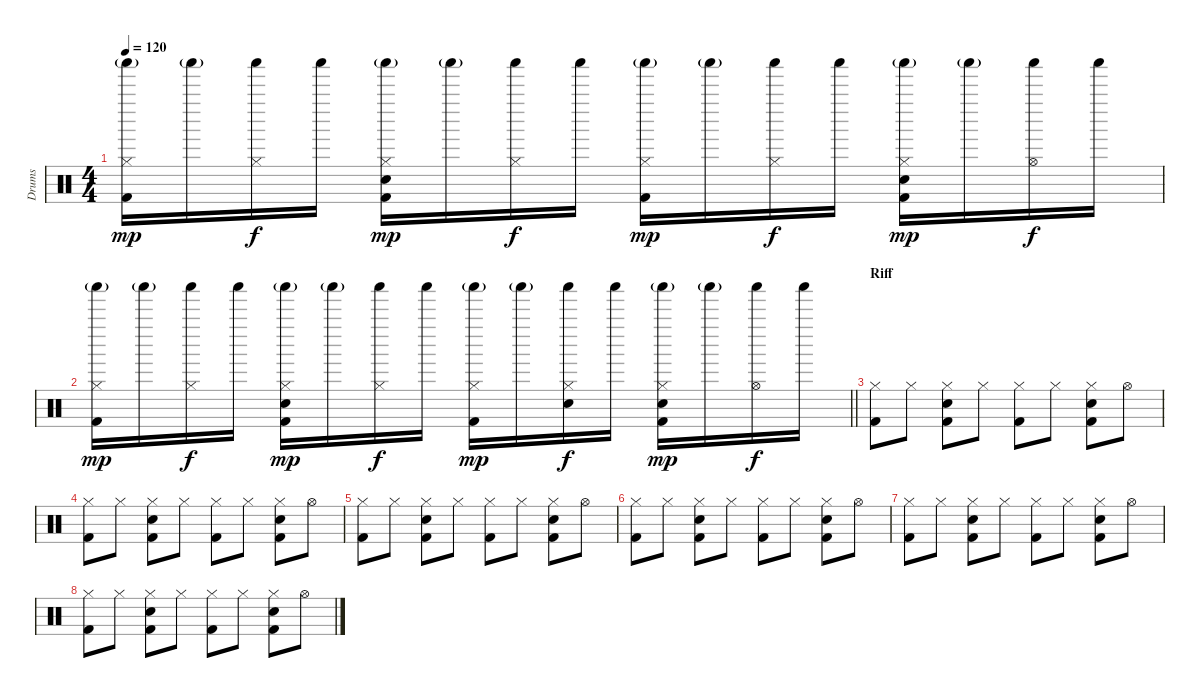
\track ("Drums" "Drums") {instrument percussion}
\staff {score}
\articulation defaults
\ts (4 4)
\tempo 120
\clef neutral
\ks c
("Hi-Hat (closed)" "Shaker (hit)"{g} "Kick (hit) 2").16{dy mp} "Shaker (hit)"{g}.16 ("Hi-Hat (closed)" "Shaker (hit)").16{dy f} "Shaker (hit)".16 ("Hi-Hat (closed)" "Shaker (hit)"{g} "Electric Snare (hit)" "Kick (hit) 2").16{dy mp} "Shaker (hit)"{g}.16 ("Hi-Hat (closed)" "Shaker (hit)").16{dy f} "Shaker (hit)".16 ("Hi-Hat (closed)" "Shaker (hit)"{g} "Kick (hit) 2").16{dy mp} "Shaker (hit)"{g}.16 ("Hi-Hat (closed)" "Shaker (hit)").16{dy f} "Shaker (hit)".16 ("Hi-Hat (closed)" "Shaker (hit)"{g} "Electric Snare (hit)" "Kick (hit) 2").16{dy mp} "Shaker (hit)"{g}.16 ("Hi-Hat (open)" "Shaker (hit)").16{dy f} "Shaker (hit)".16 |
\barLineRight lightlight
("Hi-Hat (closed)" "Shaker (hit)"{g} "Kick (hit) 2").16{dy mp} "Shaker (hit)"{g}.16 ("Hi-Hat (closed)" "Shaker (hit)").16{dy f} "Shaker (hit)".16 ("Hi-Hat (closed)" "Shaker (hit)"{g} "Electric Snare (hit)" "Kick (hit) 2").16{dy mp} "Shaker (hit)"{g}.16 ("Hi-Hat (closed)" "Shaker (hit)").16{dy f} "Shaker (hit)".16 ("Hi-Hat (closed)" "Shaker (hit)"{g} "Kick (hit) 2").16{dy mp} "Shaker (hit)"{g}.16 ("Hi-Hat (closed)" "Shaker (hit)" "Electric Snare (hit)").16{dy f} "Shaker (hit)".16 ("Hi-Hat (closed)" "Shaker (hit)"{g} "Electric Snare (hit)" "Kick (hit) 2").16{dy mp} "Shaker (hit)"{g}.16 ("Hi-Hat (open)" "Shaker (hit)").16{dy f} "Shaker (hit)".16 |
\section ("" "Riff")
("Hi-Hat (closed)" "Kick (hit) 2").8 "Hi-Hat (closed)".8 ("Hi-Hat (closed)" "Electric Snare (hit)" "Kick (hit) 2").8 "Hi-Hat (closed)".8 ("Hi-Hat (closed)" "Kick (hit) 2").8 "Hi-Hat (closed)".8 ("Hi-Hat (closed)" "Electric Snare (hit)" "Kick (hit) 2").8 "Hi-Hat (open)".8 |
("Hi-Hat (closed)" "Kick (hit) 2").8 "Hi-Hat (closed)".8 ("Hi-Hat (closed)" "Electric Snare (hit)" "Kick (hit) 2").8 "Hi-Hat (closed)".8 ("Hi-Hat (closed)" "Kick (hit) 2").8 "Hi-Hat (closed)".8 ("Hi-Hat (closed)" "Electric Snare (hit)" "Kick (hit) 2").8 "Hi-Hat (open)".8 |
("Hi-Hat (closed)" "Kick (hit) 2").8 "Hi-Hat (closed)".8 ("Hi-Hat (closed)" "Electric Snare (hit)" "Kick (hit) 2").8 "Hi-Hat (closed)".8 ("Hi-Hat (closed)" "Kick (hit) 2").8 "Hi-Hat (closed)".8 ("Hi-Hat (closed)" "Electric Snare (hit)" "Kick (hit) 2").8 "Hi-Hat (open)".8 |
("Hi-Hat (closed)" "Kick (hit) 2").8 "Hi-Hat (closed)".8 ("Hi-Hat (closed)" "Electric Snare (hit)" "Kick (hit) 2").8 "Hi-Hat (closed)".8 ("Hi-Hat (closed)" "Kick (hit) 2").8 "Hi-Hat (closed)".8 ("Hi-Hat (closed)" "Electric Snare (hit)" "Kick (hit) 2").8 "Hi-Hat (open)".8 |
("Hi-Hat (closed)" "Kick (hit) 2").8 "Hi-Hat (closed)".8 ("Hi-Hat (closed)" "Electric Snare (hit)" "Kick (hit) 2").8 "Hi-Hat (closed)".8 ("Hi-Hat (closed)" "Kick (hit) 2").8 "Hi-Hat (closed)".8 ("Hi-Hat (closed)" "Electric Snare (hit)" "Kick (hit) 2").8 "Hi-Hat (open)".8 |
("Hi-Hat (closed)" "Kick (hit) 2").8 "Hi-Hat (closed)".8 ("Hi-Hat (closed)" "Electric Snare (hit)" "Kick (hit) 2").8 "Hi-Hat (closed)".8 ("Hi-Hat (closed)" "Kick (hit) 2").8 "Hi-Hat (closed)".8 ("Hi-Hat (closed)" "Electric Snare (hit)" "Kick (hit) 2").8 "Hi-Hat (open)".8
